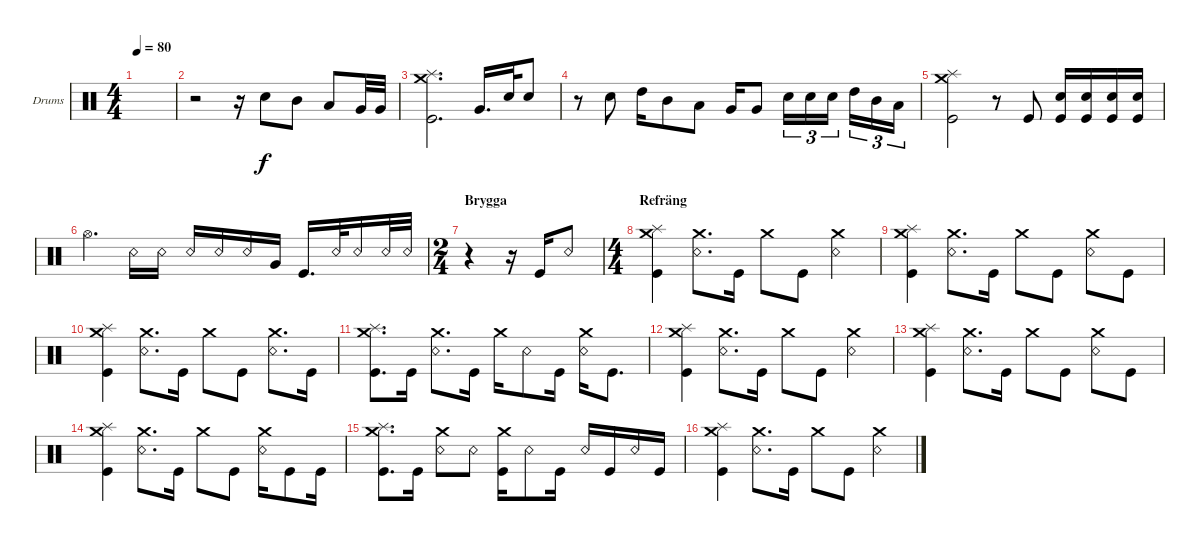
\defaultSystemsLayout 4
\bracketExtendMode groupsimilarinstruments
\firstSystemTrackNameOrientation horizontal
\otherSystemsTrackNameOrientation horizontal
\track ("Drums" "Drums") {instrument percussion}
\staff {score}
\articulation defaults
\ts (4 4)
\tempo 80
\clef neutral
\ks c
|
r.2 r.16 "Snare (hit) 2".8 "Mid Tom (hit)".8 "Low Tom (hit)".8 "Very Low Tom (hit)".32 "Very Low Tom (hit)".32 |
("Kick (hit)" "Crash medium (hit)" "Splash (hit)").2{d} "Very Low Tom (hit)".16{d} "Snare (hit) 2".32 "Snare (hit) 2".8 |
r.8 "Snare (hit) 2".8 "High Tom (hit)".16 "Mid Tom (hit)".8 "Low Tom (hit)".8 "Very Low Tom (hit)".16 "Very Low Tom (hit)".8 "Snare (hit) 2".16{tu (3 2)} "Snare (hit) 2".16{tu (3 2)} "Snare (hit) 2".16{tu (3 2)} "High Tom (hit)".16{tu (3 2)} "Mid Tom (hit)".16{tu (3 2)} "Low Tom (hit)".16{tu (3 2)} |
("Kick (hit)" "Crash medium (hit)" "Splash (hit)").2 r.8 "Kick (hit)".8 ("Snare (hit) 2" "Kick (hit)").16 ("Snare (hit) 2" "Kick (hit)").16 ("Snare (hit) 2" "Kick (hit)").16 ("Snare (hit) 2" "Kick (hit)").16 |
"Hi-Hat (open)".4{d} "Snare (rim shot)".16 "Snare (rim shot)".16 "Snare (rim shot)".16 "Snare (rim shot)".16 "Snare (rim shot)".16 "Very Low Tom (hit)".16 "Kick (hit)".16{d} "Snare (rim shot)".32 "Snare (rim shot)".16 "Snare (rim shot)".32 "Snare (rim shot)".32 |
\ts (2 4)
\section ("" "Brygga")
r.4 r.16 "Kick (hit)".16 "Snare (rim shot)".8 |
\ts (4 4)
\section ("" "Refräng")
("Kick (hit)" "Crash medium (hit)" "Splash (hit)").4 ("Snare (rim shot)" "Crash medium (hit)").8{d} "Kick (hit)".16 "Crash medium (hit)".8 "Kick (hit)".8 ("Snare (rim shot)" "Crash medium (hit)").4 |
("Kick (hit)" "Crash medium (hit)" "Splash (hit)").4 ("Snare (rim shot)" "Crash medium (hit)").8{d} "Kick (hit)".16 "Crash medium (hit)".8 "Kick (hit)".8 ("Snare (rim shot)" "Crash medium (hit)").8 "Kick (hit)".8 |
("Kick (hit)" "Crash medium (hit)" "Splash (hit)").4 ("Snare (rim shot)" "Crash medium (hit)").8{d} "Kick (hit)".16 "Crash medium (hit)".8 "Kick (hit)".8 ("Snare (rim shot)" "Crash medium (hit)").8{d} "Kick (hit)".16 |
("Kick (hit)" "Crash medium (hit)" "Splash (hit)").8{d} "Kick (hit)".16 ("Snare (rim shot)" "Crash medium (hit)").8{d} "Kick (hit)".16 "Crash medium (hit)".16 "Snare (rim shot)".8 "Kick (hit)".16 ("Snare (rim shot)" "Crash medium (hit)").16 "Kick (hit)".8{d} |
("Kick (hit)" "Crash medium (hit)" "Splash (hit)").4 ("Snare (rim shot)" "Crash medium (hit)").8{d} "Kick (hit)".16 "Crash medium (hit)".8 "Kick (hit)".8 ("Snare (rim shot)" "Crash medium (hit)").4 |
("Kick (hit)" "Crash medium (hit)" "Splash (hit)").4 ("Snare (rim shot)" "Crash medium (hit)").8{d} "Kick (hit)".16 "Crash medium (hit)".8 "Kick (hit)".8 ("Snare (rim shot)" "Crash medium (hit)").8 "Kick (hit)".8 |
("Kick (hit)" "Crash medium (hit)" "Splash (hit)").4 ("Snare (rim shot)" "Crash medium (hit)").8{d} "Kick (hit)".16 "Crash medium (hit)".8 "Kick (hit)".8 ("Snare (rim shot)" "Crash medium (hit)").16 "Kick (hit)".8 "Kick (hit)".16 |
("Kick (hit)" "Crash medium (hit)" "Splash (hit)").8{d} "Kick (hit)".16 ("Snare (rim shot)" "Crash medium (hit)").8 "Snare (rim shot)".8 ("Crash medium (hit)" "Kick (hit)").16 "Snare (rim shot)".8 "Kick (hit)".16 "Snare (rim shot)".16 "Kick (hit)".16 "Snare (rim shot)".16 "Kick (hit)".16 |
("Kick (hit)" "Crash medium (hit)" "Splash (hit)").4 ("Snare (rim shot)" "Crash medium (hit)").8{d} "Kick (hit)".16 "Crash medium (hit)".8 "Kick (hit)".8 ("Snare (rim shot)" "Crash medium (hit)").4
